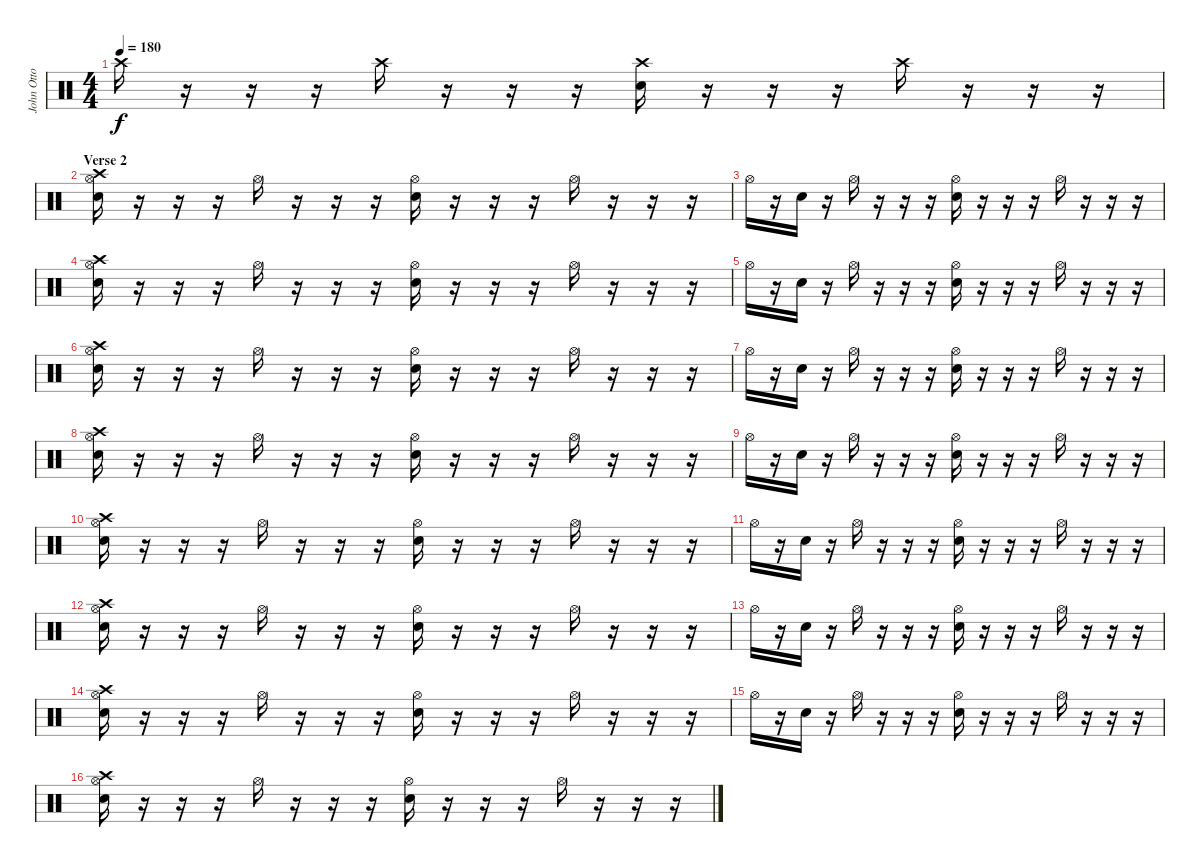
\track ("John Otto" "John Otto") {instrument percussion}
\staff {score}
\articulation defaults
\ts (4 4)
\tempo 180
\clef neutral
\ks c "Crash high (hit)".16{dy f}
r.16 r.16 r.16 "Crash high (hit)".16 r.16 r.16 r.16 ("Crash high (hit)" "Snare (hit) 2").16 r.16 r.16 r.16 "Crash high (hit)".16 r.16 r.16 r.16 |
\section ("" "Verse 2")
("Hi-Hat (open)" "Crash high (hit)" "Snare (hit) 2").16 r.16 r.16 r.16 "Hi-Hat (open)".16 r.16 r.16 r.16 ("Hi-Hat (open)" "Snare (hit) 2").16 r.16 r.16 r.16 "Hi-Hat (open)".16 r.16 r.16 r.16 |
"Hi-Hat (open)".16 r.16 "Snare (hit) 2".16 r.16 "Hi-Hat (open)".16 r.16 r.16 r.16 ("Hi-Hat (open)" "Snare (hit) 2").16 r.16 r.16 r.16 "Hi-Hat (open)".16 r.16 r.16 r.16 |
("Hi-Hat (open)" "Crash high (hit)" "Snare (hit) 2").16 r.16 r.16 r.16 "Hi-Hat (open)".16 r.16 r.16 r.16 ("Hi-Hat (open)" "Snare (hit) 2").16 r.16 r.16 r.16 "Hi-Hat (open)".16 r.16 r.16 r.16 |
"Hi-Hat (open)".16 r.16 "Snare (hit) 2".16 r.16 "Hi-Hat (open)".16 r.16 r.16 r.16 ("Hi-Hat (open)" "Snare (hit) 2").16 r.16 r.16 r.16 "Hi-Hat (open)".16 r.16 r.16 r.16 |
("Hi-Hat (open)" "Crash high (hit)" "Snare (hit) 2").16 r.16 r.16 r.16 "Hi-Hat (open)".16 r.16 r.16 r.16 ("Hi-Hat (open)" "Snare (hit) 2").16 r.16 r.16 r.16 "Hi-Hat (open)".16 r.16 r.16 r.16 |
"Hi-Hat (open)".16 r.16 "Snare (hit) 2".16 r.16 "Hi-Hat (open)".16 r.16 r.16 r.16 ("Hi-Hat (open)" "Snare (hit) 2").16 r.16 r.16 r.16 "Hi-Hat (open)".16 r.16 r.16 r.16 |
("Hi-Hat (open)" "Crash high (hit)" "Snare (hit) 2").16 r.16 r.16 r.16 "Hi-Hat (open)".16 r.16 r.16 r.16 ("Hi-Hat (open)" "Snare (hit) 2").16 r.16 r.16 r.16 "Hi-Hat (open)".16 r.16 r.16 r.16 |
"Hi-Hat (open)".16 r.16 "Snare (hit) 2".16 r.16 "Hi-Hat (open)".16 r.16 r.16 r.16 ("Hi-Hat (open)" "Snare (hit) 2").16 r.16 r.16 r.16 "Hi-Hat (open)".16 r.16 r.16 r.16 |
("Hi-Hat (open)" "Crash high (hit)" "Snare (hit) 2").16 r.16 r.16 r.16 "Hi-Hat (open)".16 r.16 r.16 r.16 ("Hi-Hat (open)" "Snare (hit) 2").16 r.16 r.16 r.16 "Hi-Hat (open)".16 r.16 r.16 r.16 |
"Hi-Hat (open)".16 r.16 "Snare (hit) 2".16 r.16 "Hi-Hat (open)".16 r.16 r.16 r.16 ("Hi-Hat (open)" "Snare (hit) 2").16 r.16 r.16 r.16 "Hi-Hat (open)".16 r.16 r.16 r.16 |
("Hi-Hat (open)" "Crash high (hit)" "Snare (hit) 2").16 r.16 r.16 r.16 "Hi-Hat (open)".16 r.16 r.16 r.16 ("Hi-Hat (open)" "Snare (hit) 2").16 r.16 r.16 r.16 "Hi-Hat (open)".16 r.16 r.16 r.16 |
"Hi-Hat (open)".16 r.16 "Snare (hit) 2".16 r.16 "Hi-Hat (open)".16 r.16 r.16 r.16 ("Hi-Hat (open)" "Snare (hit) 2").16 r.16 r.16 r.16 "Hi-Hat (open)".16 r.16 r.16 r.16 |
("Hi-Hat (open)" "Crash high (hit)" "Snare (hit) 2").16 r.16 r.16 r.16 "Hi-Hat (open)".16 r.16 r.16 r.16 ("Hi-Hat (open)" "Snare (hit) 2").16 r.16 r.16 r.16 "Hi-Hat (open)".16 r.16 r.16 r.16 |
"Hi-Hat (open)".16 r.16 "Snare (hit) 2".16 r.16 "Hi-Hat (open)".16 r.16 r.16 r.16 ("Hi-Hat (open)" "Snare (hit) 2").16 r.16 r.16 r.16 "Hi-Hat (open)".16 r.16 r.16 r.16 |
("Hi-Hat (open)" "Crash high (hit)" "Snare (hit) 2").16 r.16 r.16 r.16 "Hi-Hat (open)".16 r.16 r.16 r.16 ("Hi-Hat (open)" "Snare (hit) 2").16 r.16 r.16 r.16 "Hi-Hat (open)".16 r.16 r.16 r.16
